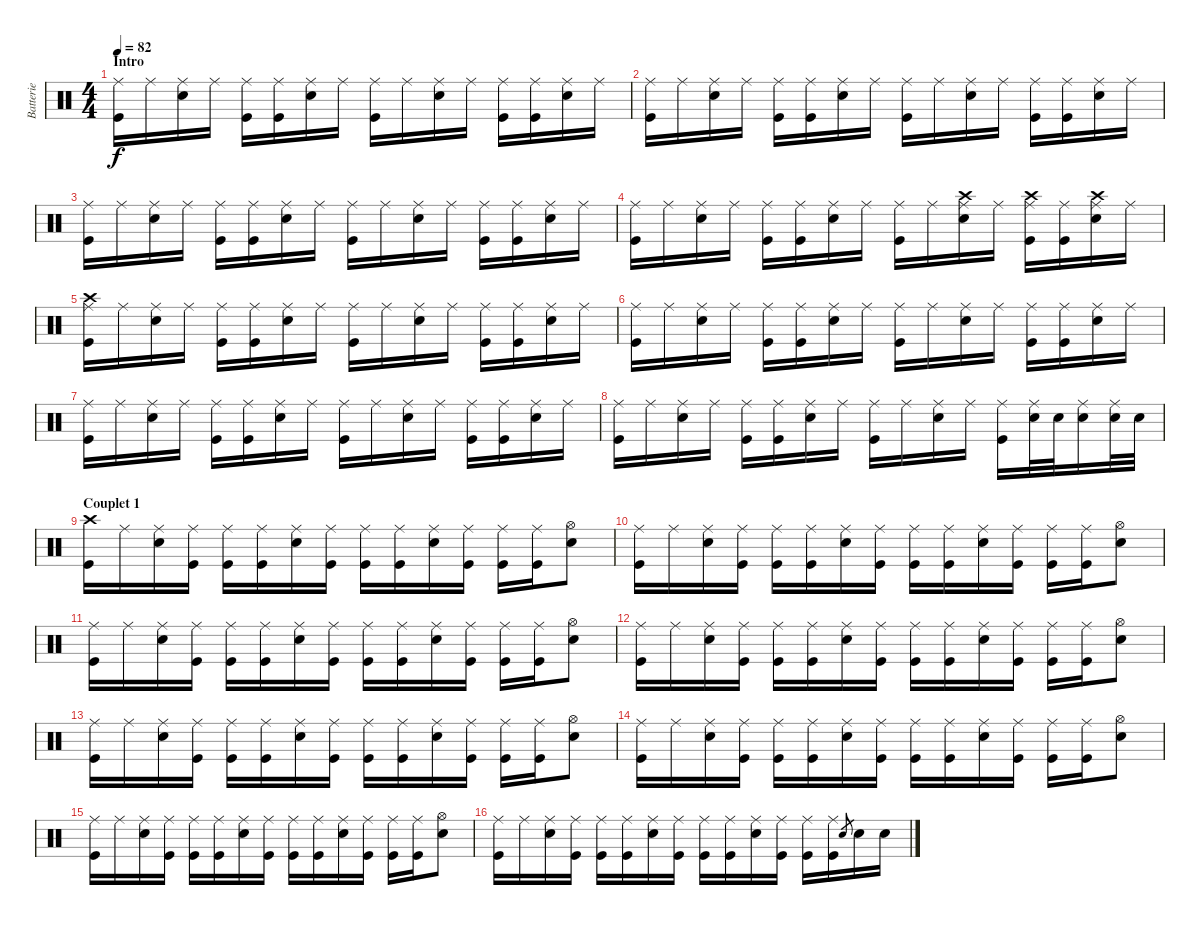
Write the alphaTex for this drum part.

\track ("Batterie" "Batterie") {instrument percussion}
\staff {score}
\articulation defaults
\ts (4 4)
\section ("" "Intro")
\tempo 82
\clef neutral
\ks c
("Ride (middle)" "Kick (hit)").16{dy f} "Ride (middle)".16 ("Ride (middle)" "Snare (hit) 2").16 "Ride (middle)".16 ("Ride (middle)" "Kick (hit)").16 ("Ride (middle)" "Kick (hit)").16 ("Ride (middle)" "Snare (hit) 2").16 "Ride (middle)".16 ("Ride (middle)" "Kick (hit)").16 "Ride (middle)".16 ("Ride (middle)" "Snare (hit) 2").16 "Ride (middle)".16 ("Ride (middle)" "Kick (hit)").16 ("Ride (middle)" "Kick (hit)").16 ("Ride (middle)" "Snare (hit) 2").16 "Ride (middle)".16 |
("Ride (middle)" "Kick (hit)").16 "Ride (middle)".16 ("Ride (middle)" "Snare (hit) 2").16 "Ride (middle)".16 ("Ride (middle)" "Kick (hit)").16 ("Ride (middle)" "Kick (hit)").16 ("Ride (middle)" "Snare (hit) 2").16 "Ride (middle)".16 ("Ride (middle)" "Kick (hit)").16 "Ride (middle)".16 ("Ride (middle)" "Snare (hit) 2").16 "Ride (middle)".16 ("Ride (middle)" "Kick (hit)").16 ("Ride (middle)" "Kick (hit)").16 ("Ride (middle)" "Snare (hit) 2").16 "Ride (middle)".16 |
("Ride (middle)" "Kick (hit)").16 "Ride (middle)".16 ("Ride (middle)" "Snare (hit) 2").16 "Ride (middle)".16 ("Ride (middle)" "Kick (hit)").16 ("Ride (middle)" "Kick (hit)").16 ("Ride (middle)" "Snare (hit) 2").16 "Ride (middle)".16 ("Ride (middle)" "Kick (hit)").16 "Ride (middle)".16 ("Ride (middle)" "Snare (hit) 2").16 "Ride (middle)".16 ("Ride (middle)" "Kick (hit)").16 ("Ride (middle)" "Kick (hit)").16 ("Ride (middle)" "Snare (hit) 2").16 "Ride (middle)".16 |
("Ride (middle)" "Kick (hit)").16 "Ride (middle)".16 ("Ride (middle)" "Snare (hit) 2").16 "Ride (middle)".16 ("Ride (middle)" "Kick (hit)").16 ("Ride (middle)" "Kick (hit)").16 ("Ride (middle)" "Snare (hit) 2").16 "Ride (middle)".16 ("Ride (middle)" "Kick (hit)").16 "Ride (middle)".16 ("Ride (middle)" "Crash high (hit)" "Snare (hit) 2").16 "Ride (middle)".16 ("Ride (middle)" "Crash high (hit)" "Kick (hit)").16 ("Ride (middle)" "Kick (hit)").16 ("Ride (middle)" "Crash high (hit)" "Snare (hit) 2").16 "Ride (middle)".16 |
("Ride (middle)" "Crash high (hit)" "Kick (hit)").16 "Ride (middle)".16 ("Ride (middle)" "Snare (hit) 2").16 "Ride (middle)".16 ("Ride (middle)" "Kick (hit)").16 ("Ride (middle)" "Kick (hit)").16 ("Ride (middle)" "Snare (hit) 2").16 "Ride (middle)".16 ("Ride (middle)" "Kick (hit)").16 "Ride (middle)".16 ("Ride (middle)" "Snare (hit) 2").16 "Ride (middle)".16 ("Ride (middle)" "Kick (hit)").16 ("Ride (middle)" "Kick (hit)").16 ("Ride (middle)" "Snare (hit) 2").16 "Ride (middle)".16 |
("Ride (middle)" "Kick (hit)").16 "Ride (middle)".16 ("Ride (middle)" "Snare (hit) 2").16 "Ride (middle)".16 ("Ride (middle)" "Kick (hit)").16 ("Ride (middle)" "Kick (hit)").16 ("Ride (middle)" "Snare (hit) 2").16 "Ride (middle)".16 ("Ride (middle)" "Kick (hit)").16 "Ride (middle)".16 ("Ride (middle)" "Snare (hit) 2").16 "Ride (middle)".16 ("Ride (middle)" "Kick (hit)").16 ("Ride (middle)" "Kick (hit)").16 ("Ride (middle)" "Snare (hit) 2").16 "Ride (middle)".16 |
("Ride (middle)" "Kick (hit)").16 "Ride (middle)".16 ("Ride (middle)" "Snare (hit) 2").16 "Ride (middle)".16 ("Ride (middle)" "Kick (hit)").16 ("Ride (middle)" "Kick (hit)").16 ("Ride (middle)" "Snare (hit) 2").16 "Ride (middle)".16 ("Ride (middle)" "Kick (hit)").16 "Ride (middle)".16 ("Ride (middle)" "Snare (hit) 2").16 "Ride (middle)".16 ("Ride (middle)" "Kick (hit)").16 ("Ride (middle)" "Kick (hit)").16 ("Ride (middle)" "Snare (hit) 2").16 "Ride (middle)".16 |
("Ride (middle)" "Kick (hit)").16 "Ride (middle)".16 ("Ride (middle)" "Snare (hit) 2").16 "Ride (middle)".16 ("Ride (middle)" "Kick (hit)").16 ("Ride (middle)" "Kick (hit)").16 ("Ride (middle)" "Snare (hit) 2").16 "Ride (middle)".16 ("Ride (middle)" "Kick (hit)").16 "Ride (middle)".16 ("Ride (middle)" "Snare (hit) 2").16 "Ride (middle)".16 ("Ride (middle)" "Kick (hit)").16 ("Ride (middle)" "Snare (hit) 2").32 "Snare (hit) 2".32 ("Ride (middle)" "Snare (hit) 2").16 ("Ride (middle)" "Snare (hit) 2").32 "Snare (hit) 2".32 |
\section ("" "Couplet 1")
("Crash high (hit)" "Kick (hit)").16 "Ride (middle)".16 ("Ride (middle)" "Snare (hit) 2").16 ("Ride (middle)" "Kick (hit)").16 ("Ride (middle)" "Kick (hit)").16 ("Ride (middle)" "Kick (hit)").16 ("Ride (middle)" "Snare (hit) 2").16 ("Ride (middle)" "Kick (hit)").16 ("Ride (middle)" "Kick (hit)").16 ("Ride (middle)" "Kick (hit)").16 ("Ride (middle)" "Snare (hit) 2").16 ("Ride (middle)" "Kick (hit)").16 ("Ride (middle)" "Kick (hit)").16 ("Ride (middle)" "Kick (hit)").16 ("Hi-Hat (open)" "Snare (hit) 2").8 |
("Ride (middle)" "Kick (hit)").16 "Ride (middle)".16 ("Ride (middle)" "Snare (hit) 2").16 ("Ride (middle)" "Kick (hit)").16 ("Ride (middle)" "Kick (hit)").16 ("Ride (middle)" "Kick (hit)").16 ("Ride (middle)" "Snare (hit) 2").16 ("Ride (middle)" "Kick (hit)").16 ("Ride (middle)" "Kick (hit)").16 ("Ride (middle)" "Kick (hit)").16 ("Ride (middle)" "Snare (hit) 2").16 ("Ride (middle)" "Kick (hit)").16 ("Ride (middle)" "Kick (hit)").16 ("Ride (middle)" "Kick (hit)").16 ("Hi-Hat (open)" "Snare (hit) 2").8 |
("Ride (middle)" "Kick (hit)").16 "Ride (middle)".16 ("Ride (middle)" "Snare (hit) 2").16 ("Ride (middle)" "Kick (hit)").16 ("Ride (middle)" "Kick (hit)").16 ("Ride (middle)" "Kick (hit)").16 ("Ride (middle)" "Snare (hit) 2").16 ("Ride (middle)" "Kick (hit)").16 ("Ride (middle)" "Kick (hit)").16 ("Ride (middle)" "Kick (hit)").16 ("Ride (middle)" "Snare (hit) 2").16 ("Ride (middle)" "Kick (hit)").16 ("Ride (middle)" "Kick (hit)").16 ("Ride (middle)" "Kick (hit)").16 ("Hi-Hat (open)" "Snare (hit) 2").8 |
("Ride (middle)" "Kick (hit)").16 "Ride (middle)".16 ("Ride (middle)" "Snare (hit) 2").16 ("Ride (middle)" "Kick (hit)").16 ("Ride (middle)" "Kick (hit)").16 ("Ride (middle)" "Kick (hit)").16 ("Ride (middle)" "Snare (hit) 2").16 ("Ride (middle)" "Kick (hit)").16 ("Ride (middle)" "Kick (hit)").16 ("Ride (middle)" "Kick (hit)").16 ("Ride (middle)" "Snare (hit) 2").16 ("Ride (middle)" "Kick (hit)").16 ("Ride (middle)" "Kick (hit)").16 ("Ride (middle)" "Kick (hit)").16 ("Hi-Hat (open)" "Snare (hit) 2").8 |
("Ride (middle)" "Kick (hit)").16 "Ride (middle)".16 ("Ride (middle)" "Snare (hit) 2").16 ("Ride (middle)" "Kick (hit)").16 ("Ride (middle)" "Kick (hit)").16 ("Ride (middle)" "Kick (hit)").16 ("Ride (middle)" "Snare (hit) 2").16 ("Ride (middle)" "Kick (hit)").16 ("Ride (middle)" "Kick (hit)").16 ("Ride (middle)" "Kick (hit)").16 ("Ride (middle)" "Snare (hit) 2").16 ("Ride (middle)" "Kick (hit)").16 ("Ride (middle)" "Kick (hit)").16 ("Ride (middle)" "Kick (hit)").16 ("Hi-Hat (open)" "Snare (hit) 2").8 |
("Ride (middle)" "Kick (hit)").16 "Ride (middle)".16 ("Ride (middle)" "Snare (hit) 2").16 ("Ride (middle)" "Kick (hit)").16 ("Ride (middle)" "Kick (hit)").16 ("Ride (middle)" "Kick (hit)").16 ("Ride (middle)" "Snare (hit) 2").16 ("Ride (middle)" "Kick (hit)").16 ("Ride (middle)" "Kick (hit)").16 ("Ride (middle)" "Kick (hit)").16 ("Ride (middle)" "Snare (hit) 2").16 ("Ride (middle)" "Kick (hit)").16 ("Ride (middle)" "Kick (hit)").16 ("Ride (middle)" "Kick (hit)").16 ("Hi-Hat (open)" "Snare (hit) 2").8 |
("Ride (middle)" "Kick (hit)").16 "Ride (middle)".16 ("Ride (middle)" "Snare (hit) 2").16 ("Ride (middle)" "Kick (hit)").16 ("Ride (middle)" "Kick (hit)").16 ("Ride (middle)" "Kick (hit)").16 ("Ride (middle)" "Snare (hit) 2").16 ("Ride (middle)" "Kick (hit)").16 ("Ride (middle)" "Kick (hit)").16 ("Ride (middle)" "Kick (hit)").16 ("Ride (middle)" "Snare (hit) 2").16 ("Ride (middle)" "Kick (hit)").16 ("Ride (middle)" "Kick (hit)").16 ("Ride (middle)" "Kick (hit)").16 ("Hi-Hat (open)" "Snare (hit) 2").8 |
("Ride (middle)" "Kick (hit)").16 "Ride (middle)".16 ("Ride (middle)" "Snare (hit) 2").16 ("Ride (middle)" "Kick (hit)").16 ("Ride (middle)" "Kick (hit)").16 ("Ride (middle)" "Kick (hit)").16 ("Ride (middle)" "Snare (hit) 2").16 ("Ride (middle)" "Kick (hit)").16 ("Ride (middle)" "Kick (hit)").16 ("Ride (middle)" "Kick (hit)").16 ("Ride (middle)" "Snare (hit) 2").16 ("Ride (middle)" "Kick (hit)").16 ("Ride (middle)" "Kick (hit)").16 ("Ride (middle)" "Kick (hit)").16 "Snare (hit) 2"{sl}.8{gr} "Snare (hit) 2".16 "Snare (hit) 2".16
